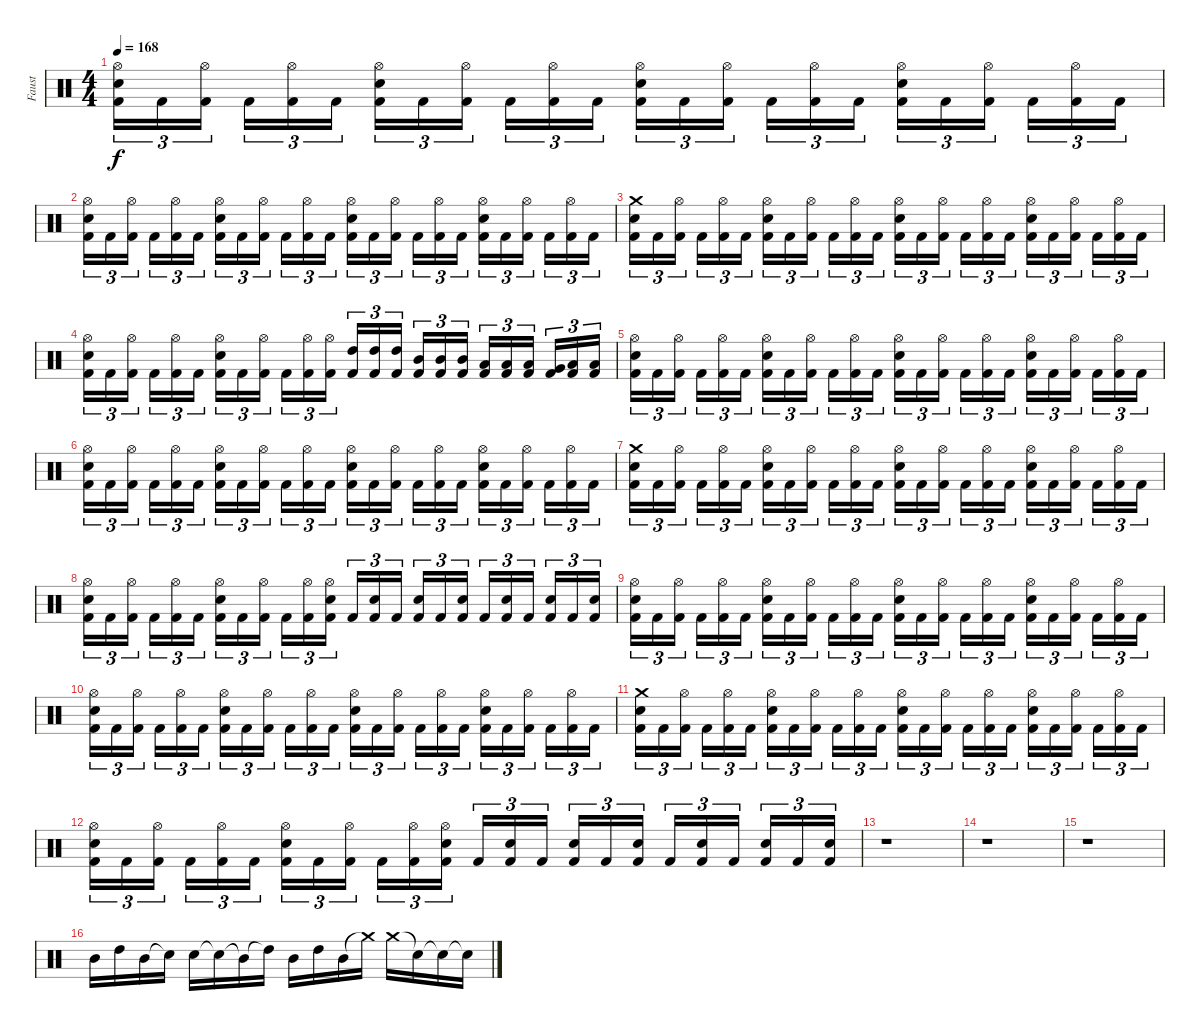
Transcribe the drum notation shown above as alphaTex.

\track ("Faust" "Faust") {instrument percussion}
\staff {score}
\articulation defaults
\ts (4 4)
\tempo 168
\clef neutral
\ks c
("Hi-Hat (open)" "Electric Snare (hit)" "Kick (hit) 2").16{tu (3 2) dy f} "Kick (hit) 2".16{tu (3 2)} ("Hi-Hat (open)" "Kick (hit) 2").16{tu (3 2)} "Kick (hit) 2".16{tu (3 2)} ("Hi-Hat (open)" "Kick (hit) 2").16{tu (3 2)} "Kick (hit) 2".16{tu (3 2)} ("Hi-Hat (open)" "Electric Snare (hit)" "Kick (hit) 2").16{tu (3 2)} "Kick (hit) 2".16{tu (3 2)} ("Hi-Hat (open)" "Kick (hit) 2").16{tu (3 2)} "Kick (hit) 2".16{tu (3 2)} ("Hi-Hat (open)" "Kick (hit) 2").16{tu (3 2)} "Kick (hit) 2".16{tu (3 2)} ("Hi-Hat (open)" "Electric Snare (hit)" "Kick (hit) 2").16{tu (3 2)} "Kick (hit) 2".16{tu (3 2)} ("Hi-Hat (open)" "Kick (hit) 2").16{tu (3 2)} "Kick (hit) 2".16{tu (3 2)} ("Hi-Hat (open)" "Kick (hit) 2").16{tu (3 2)} "Kick (hit) 2".16{tu (3 2)} ("Hi-Hat (open)" "Electric Snare (hit)" "Kick (hit) 2").16{tu (3 2)} "Kick (hit) 2".16{tu (3 2)} ("Hi-Hat (open)" "Kick (hit) 2").16{tu (3 2)} "Kick (hit) 2".16{tu (3 2)} ("Hi-Hat (open)" "Kick (hit) 2").16{tu (3 2)} "Kick (hit) 2".16{tu (3 2)} |
("Hi-Hat (open)" "Electric Snare (hit)" "Kick (hit) 2").16{tu (3 2)} "Kick (hit) 2".16{tu (3 2)} ("Hi-Hat (open)" "Kick (hit) 2").16{tu (3 2)} "Kick (hit) 2".16{tu (3 2)} ("Hi-Hat (open)" "Kick (hit) 2").16{tu (3 2)} "Kick (hit) 2".16{tu (3 2)} ("Hi-Hat (open)" "Electric Snare (hit)" "Kick (hit) 2").16{tu (3 2)} "Kick (hit) 2".16{tu (3 2)} ("Hi-Hat (open)" "Kick (hit) 2").16{tu (3 2)} "Kick (hit) 2".16{tu (3 2)} ("Hi-Hat (open)" "Kick (hit) 2").16{tu (3 2)} "Kick (hit) 2".16{tu (3 2)} ("Hi-Hat (open)" "Electric Snare (hit)" "Kick (hit) 2").16{tu (3 2)} "Kick (hit) 2".16{tu (3 2)} ("Hi-Hat (open)" "Kick (hit) 2").16{tu (3 2)} "Kick (hit) 2".16{tu (3 2)} ("Hi-Hat (open)" "Kick (hit) 2").16{tu (3 2)} "Kick (hit) 2".16{tu (3 2)} ("Hi-Hat (open)" "Electric Snare (hit)" "Kick (hit) 2").16{tu (3 2)} "Kick (hit) 2".16{tu (3 2)} ("Hi-Hat (open)" "Kick (hit) 2").16{tu (3 2)} "Kick (hit) 2".16{tu (3 2)} ("Hi-Hat (open)" "Kick (hit) 2").16{tu (3 2)} "Kick (hit) 2".16{tu (3 2)} |
("Crash medium (hit)" "Electric Snare (hit)" "Kick (hit) 2").16{tu (3 2)} "Kick (hit) 2".16{tu (3 2)} ("Hi-Hat (open)" "Kick (hit) 2").16{tu (3 2)} "Kick (hit) 2".16{tu (3 2)} ("Hi-Hat (open)" "Kick (hit) 2").16{tu (3 2)} "Kick (hit) 2".16{tu (3 2)} ("Hi-Hat (open)" "Electric Snare (hit)" "Kick (hit) 2").16{tu (3 2)} "Kick (hit) 2".16{tu (3 2)} ("Hi-Hat (open)" "Kick (hit) 2").16{tu (3 2)} "Kick (hit) 2".16{tu (3 2)} ("Hi-Hat (open)" "Kick (hit) 2").16{tu (3 2)} "Kick (hit) 2".16{tu (3 2)} ("Hi-Hat (open)" "Electric Snare (hit)" "Kick (hit) 2").16{tu (3 2)} "Kick (hit) 2".16{tu (3 2)} ("Hi-Hat (open)" "Kick (hit) 2").16{tu (3 2)} "Kick (hit) 2".16{tu (3 2)} ("Hi-Hat (open)" "Kick (hit) 2").16{tu (3 2)} "Kick (hit) 2".16{tu (3 2)} ("Hi-Hat (open)" "Electric Snare (hit)" "Kick (hit) 2").16{tu (3 2)} "Kick (hit) 2".16{tu (3 2)} ("Hi-Hat (open)" "Kick (hit) 2").16{tu (3 2)} "Kick (hit) 2".16{tu (3 2)} ("Hi-Hat (open)" "Kick (hit) 2").16{tu (3 2)} "Kick (hit) 2".16{tu (3 2)} |
("Hi-Hat (open)" "Electric Snare (hit)" "Kick (hit) 2").16{tu (3 2)} "Kick (hit) 2".16{tu (3 2)} ("Hi-Hat (open)" "Kick (hit) 2").16{tu (3 2)} "Kick (hit) 2".16{tu (3 2)} ("Hi-Hat (open)" "Kick (hit) 2").16{tu (3 2)} "Kick (hit) 2".16{tu (3 2)} ("Hi-Hat (open)" "Electric Snare (hit)" "Kick (hit) 2").16{tu (3 2)} "Kick (hit) 2".16{tu (3 2)} ("Hi-Hat (open)" "Kick (hit) 2").16{tu (3 2)} "Kick (hit) 2".16{tu (3 2)} ("Hi-Hat (open)" "Kick (hit) 2").16{tu (3 2)} ("Hi-Hat (open)" "Kick (hit) 2").16{tu (3 2)} ("High Tom (hit)" "Kick (hit) 2").16{tu (3 2)} ("High Tom (hit)" "Kick (hit) 2").16{tu (3 2)} ("High Tom (hit)" "Kick (hit) 2").16{tu (3 2)} ("Mid Tom (hit)" "Kick (hit) 2").16{tu (3 2)} ("Mid Tom (hit)" "Kick (hit) 2").16{tu (3 2)} ("Mid Tom (hit)" "Kick (hit) 2").16{tu (3 2)} ("Low Tom (hit)" "Kick (hit) 2").16{tu (3 2)} ("Low Tom (hit)" "Kick (hit) 2").16{tu (3 2)} ("Low Tom (hit)" "Kick (hit) 2").16{tu (3 2)} ("Very Low Tom (hit)" "Kick (hit) 2").16{tu (3 2)} ("Low Floor Tom (hit)" "Kick (hit) 2").16{tu (3 2)} ("Low Floor Tom (hit)" "Kick (hit) 2").16{tu (3 2)} |
("Hi-Hat (open)" "Electric Snare (hit)" "Kick (hit) 2").16{tu (3 2)} "Kick (hit) 2".16{tu (3 2)} ("Hi-Hat (open)" "Kick (hit) 2").16{tu (3 2)} "Kick (hit) 2".16{tu (3 2)} ("Hi-Hat (open)" "Kick (hit) 2").16{tu (3 2)} "Kick (hit) 2".16{tu (3 2)} ("Hi-Hat (open)" "Electric Snare (hit)" "Kick (hit) 2").16{tu (3 2)} "Kick (hit) 2".16{tu (3 2)} ("Hi-Hat (open)" "Kick (hit) 2").16{tu (3 2)} "Kick (hit) 2".16{tu (3 2)} ("Hi-Hat (open)" "Kick (hit) 2").16{tu (3 2)} "Kick (hit) 2".16{tu (3 2)} ("Hi-Hat (open)" "Electric Snare (hit)" "Kick (hit) 2").16{tu (3 2)} "Kick (hit) 2".16{tu (3 2)} ("Hi-Hat (open)" "Kick (hit) 2").16{tu (3 2)} "Kick (hit) 2".16{tu (3 2)} ("Hi-Hat (open)" "Kick (hit) 2").16{tu (3 2)} "Kick (hit) 2".16{tu (3 2)} ("Hi-Hat (open)" "Electric Snare (hit)" "Kick (hit) 2").16{tu (3 2)} "Kick (hit) 2".16{tu (3 2)} ("Hi-Hat (open)" "Kick (hit) 2").16{tu (3 2)} "Kick (hit) 2".16{tu (3 2)} ("Hi-Hat (open)" "Kick (hit) 2").16{tu (3 2)} "Kick (hit) 2".16{tu (3 2)} |
("Hi-Hat (open)" "Electric Snare (hit)" "Kick (hit) 2").16{tu (3 2)} "Kick (hit) 2".16{tu (3 2)} ("Hi-Hat (open)" "Kick (hit) 2").16{tu (3 2)} "Kick (hit) 2".16{tu (3 2)} ("Hi-Hat (open)" "Kick (hit) 2").16{tu (3 2)} "Kick (hit) 2".16{tu (3 2)} ("Hi-Hat (open)" "Electric Snare (hit)" "Kick (hit) 2").16{tu (3 2)} "Kick (hit) 2".16{tu (3 2)} ("Hi-Hat (open)" "Kick (hit) 2").16{tu (3 2)} "Kick (hit) 2".16{tu (3 2)} ("Hi-Hat (open)" "Kick (hit) 2").16{tu (3 2)} "Kick (hit) 2".16{tu (3 2)} ("Hi-Hat (open)" "Electric Snare (hit)" "Kick (hit) 2").16{tu (3 2)} "Kick (hit) 2".16{tu (3 2)} ("Hi-Hat (open)" "Kick (hit) 2").16{tu (3 2)} "Kick (hit) 2".16{tu (3 2)} ("Hi-Hat (open)" "Kick (hit) 2").16{tu (3 2)} "Kick (hit) 2".16{tu (3 2)} ("Hi-Hat (open)" "Electric Snare (hit)" "Kick (hit) 2").16{tu (3 2)} "Kick (hit) 2".16{tu (3 2)} ("Hi-Hat (open)" "Kick (hit) 2").16{tu (3 2)} "Kick (hit) 2".16{tu (3 2)} ("Hi-Hat (open)" "Kick (hit) 2").16{tu (3 2)} "Kick (hit) 2".16{tu (3 2)} |
("Crash medium (hit)" "Electric Snare (hit)" "Kick (hit) 2").16{tu (3 2)} "Kick (hit) 2".16{tu (3 2)} ("Hi-Hat (open)" "Kick (hit) 2").16{tu (3 2)} "Kick (hit) 2".16{tu (3 2)} ("Hi-Hat (open)" "Kick (hit) 2").16{tu (3 2)} "Kick (hit) 2".16{tu (3 2)} ("Hi-Hat (open)" "Electric Snare (hit)" "Kick (hit) 2").16{tu (3 2)} "Kick (hit) 2".16{tu (3 2)} ("Hi-Hat (open)" "Kick (hit) 2").16{tu (3 2)} "Kick (hit) 2".16{tu (3 2)} ("Hi-Hat (open)" "Kick (hit) 2").16{tu (3 2)} "Kick (hit) 2".16{tu (3 2)} ("Hi-Hat (open)" "Electric Snare (hit)" "Kick (hit) 2").16{tu (3 2)} "Kick (hit) 2".16{tu (3 2)} ("Hi-Hat (open)" "Kick (hit) 2").16{tu (3 2)} "Kick (hit) 2".16{tu (3 2)} ("Hi-Hat (open)" "Kick (hit) 2").16{tu (3 2)} "Kick (hit) 2".16{tu (3 2)} ("Hi-Hat (open)" "Electric Snare (hit)" "Kick (hit) 2").16{tu (3 2)} "Kick (hit) 2".16{tu (3 2)} ("Hi-Hat (open)" "Kick (hit) 2").16{tu (3 2)} "Kick (hit) 2".16{tu (3 2)} ("Hi-Hat (open)" "Kick (hit) 2").16{tu (3 2)} "Kick (hit) 2".16{tu (3 2)} |
("Hi-Hat (open)" "Electric Snare (hit)" "Kick (hit) 2").16{tu (3 2)} "Kick (hit) 2".16{tu (3 2)} ("Hi-Hat (open)" "Kick (hit) 2").16{tu (3 2)} "Kick (hit) 2".16{tu (3 2)} ("Hi-Hat (open)" "Kick (hit) 2").16{tu (3 2)} "Kick (hit) 2".16{tu (3 2)} ("Hi-Hat (open)" "Electric Snare (hit)" "Kick (hit) 2").16{tu (3 2)} "Kick (hit) 2".16{tu (3 2)} ("Hi-Hat (open)" "Kick (hit) 2").16{tu (3 2)} "Kick (hit) 2".16{tu (3 2)} ("Hi-Hat (open)" "Kick (hit) 2").16{tu (3 2)} ("Hi-Hat (open)" "Electric Snare (hit)" "Kick (hit) 2").16{tu (3 2)} "Kick (hit) 2".16{tu (3 2)} ("Electric Snare (hit)" "Kick (hit) 2").16{tu (3 2)} "Kick (hit) 2".16{tu (3 2)} ("Electric Snare (hit)" "Kick (hit) 2").16{tu (3 2)} "Kick (hit) 2".16{tu (3 2)} ("Electric Snare (hit)" "Kick (hit) 2").16{tu (3 2)} "Kick (hit) 2".16{tu (3 2)} ("Electric Snare (hit)" "Kick (hit) 2").16{tu (3 2)} "Kick (hit) 2".16{tu (3 2)} ("Electric Snare (hit)" "Kick (hit) 2").16{tu (3 2)} "Kick (hit) 2".16{tu (3 2)} ("Electric Snare (hit)" "Kick (hit) 2").16{tu (3 2)} |
("Hi-Hat (open)" "Electric Snare (hit)" "Kick (hit) 2").16{tu (3 2)} "Kick (hit) 2".16{tu (3 2)} ("Hi-Hat (open)" "Kick (hit) 2").16{tu (3 2)} "Kick (hit) 2".16{tu (3 2)} ("Hi-Hat (open)" "Kick (hit) 2").16{tu (3 2)} "Kick (hit) 2".16{tu (3 2)} ("Hi-Hat (open)" "Electric Snare (hit)" "Kick (hit) 2").16{tu (3 2)} "Kick (hit) 2".16{tu (3 2)} ("Hi-Hat (open)" "Kick (hit) 2").16{tu (3 2)} "Kick (hit) 2".16{tu (3 2)} ("Hi-Hat (open)" "Kick (hit) 2").16{tu (3 2)} "Kick (hit) 2".16{tu (3 2)} ("Hi-Hat (open)" "Electric Snare (hit)" "Kick (hit) 2").16{tu (3 2)} "Kick (hit) 2".16{tu (3 2)} ("Hi-Hat (open)" "Kick (hit) 2").16{tu (3 2)} "Kick (hit) 2".16{tu (3 2)} ("Hi-Hat (open)" "Kick (hit) 2").16{tu (3 2)} "Kick (hit) 2".16{tu (3 2)} ("Hi-Hat (open)" "Electric Snare (hit)" "Kick (hit) 2").16{tu (3 2)} "Kick (hit) 2".16{tu (3 2)} ("Hi-Hat (open)" "Kick (hit) 2").16{tu (3 2)} "Kick (hit) 2".16{tu (3 2)} ("Hi-Hat (open)" "Kick (hit) 2").16{tu (3 2)} "Kick (hit) 2".16{tu (3 2)} |
("Hi-Hat (open)" "Electric Snare (hit)" "Kick (hit) 2").16{tu (3 2)} "Kick (hit) 2".16{tu (3 2)} ("Hi-Hat (open)" "Kick (hit) 2").16{tu (3 2)} "Kick (hit) 2".16{tu (3 2)} ("Hi-Hat (open)" "Kick (hit) 2").16{tu (3 2)} "Kick (hit) 2".16{tu (3 2)} ("Hi-Hat (open)" "Electric Snare (hit)" "Kick (hit) 2").16{tu (3 2)} "Kick (hit) 2".16{tu (3 2)} ("Hi-Hat (open)" "Kick (hit) 2").16{tu (3 2)} "Kick (hit) 2".16{tu (3 2)} ("Hi-Hat (open)" "Kick (hit) 2").16{tu (3 2)} "Kick (hit) 2".16{tu (3 2)} ("Hi-Hat (open)" "Electric Snare (hit)" "Kick (hit) 2").16{tu (3 2)} "Kick (hit) 2".16{tu (3 2)} ("Hi-Hat (open)" "Kick (hit) 2").16{tu (3 2)} "Kick (hit) 2".16{tu (3 2)} ("Hi-Hat (open)" "Kick (hit) 2").16{tu (3 2)} "Kick (hit) 2".16{tu (3 2)} ("Hi-Hat (open)" "Electric Snare (hit)" "Kick (hit) 2").16{tu (3 2)} "Kick (hit) 2".16{tu (3 2)} ("Hi-Hat (open)" "Kick (hit) 2").16{tu (3 2)} "Kick (hit) 2".16{tu (3 2)} ("Hi-Hat (open)" "Kick (hit) 2").16{tu (3 2)} "Kick (hit) 2".16{tu (3 2)} |
("Crash medium (hit)" "Electric Snare (hit)" "Kick (hit) 2").16{tu (3 2)} "Kick (hit) 2".16{tu (3 2)} ("Hi-Hat (open)" "Kick (hit) 2").16{tu (3 2)} "Kick (hit) 2".16{tu (3 2)} ("Hi-Hat (open)" "Kick (hit) 2").16{tu (3 2)} "Kick (hit) 2".16{tu (3 2)} ("Hi-Hat (open)" "Electric Snare (hit)" "Kick (hit) 2").16{tu (3 2)} "Kick (hit) 2".16{tu (3 2)} ("Hi-Hat (open)" "Kick (hit) 2").16{tu (3 2)} "Kick (hit) 2".16{tu (3 2)} ("Hi-Hat (open)" "Kick (hit) 2").16{tu (3 2)} "Kick (hit) 2".16{tu (3 2)} ("Hi-Hat (open)" "Electric Snare (hit)" "Kick (hit) 2").16{tu (3 2)} "Kick (hit) 2".16{tu (3 2)} ("Hi-Hat (open)" "Kick (hit) 2").16{tu (3 2)} "Kick (hit) 2".16{tu (3 2)} ("Hi-Hat (open)" "Kick (hit) 2").16{tu (3 2)} "Kick (hit) 2".16{tu (3 2)} ("Hi-Hat (open)" "Electric Snare (hit)" "Kick (hit) 2").16{tu (3 2)} "Kick (hit) 2".16{tu (3 2)} ("Hi-Hat (open)" "Kick (hit) 2").16{tu (3 2)} "Kick (hit) 2".16{tu (3 2)} ("Hi-Hat (open)" "Kick (hit) 2").16{tu (3 2)} "Kick (hit) 2".16{tu (3 2)} |
("Hi-Hat (open)" "Electric Snare (hit)" "Kick (hit) 2").16{tu (3 2)} "Kick (hit) 2".16{tu (3 2)} ("Hi-Hat (open)" "Kick (hit) 2").16{tu (3 2)} "Kick (hit) 2".16{tu (3 2)} ("Hi-Hat (open)" "Kick (hit) 2").16{tu (3 2)} "Kick (hit) 2".16{tu (3 2)} ("Hi-Hat (open)" "Electric Snare (hit)" "Kick (hit) 2").16{tu (3 2)} "Kick (hit) 2".16{tu (3 2)} ("Hi-Hat (open)" "Kick (hit) 2").16{tu (3 2)} "Kick (hit) 2".16{tu (3 2)} ("Hi-Hat (open)" "Kick (hit) 2").16{tu (3 2)} ("Hi-Hat (open)" "Electric Snare (hit)" "Kick (hit) 2").16{tu (3 2)} "Kick (hit) 2".16{tu (3 2)} ("Electric Snare (hit)" "Kick (hit) 2").16{tu (3 2)} "Kick (hit) 2".16{tu (3 2)} ("Electric Snare (hit)" "Kick (hit) 2").16{tu (3 2)} "Kick (hit) 2".16{tu (3 2)} ("Electric Snare (hit)" "Kick (hit) 2").16{tu (3 2)} "Kick (hit) 2".16{tu (3 2)} ("Electric Snare (hit)" "Kick (hit) 2").16{tu (3 2)} "Kick (hit) 2".16{tu (3 2)} ("Electric Snare (hit)" "Kick (hit) 2").16{tu (3 2)} "Kick (hit) 2".16{tu (3 2)} ("Electric Snare (hit)" "Kick (hit) 2").16{tu (3 2)} |
r.1 |
r.1 |
r.1 |
"Mid Tom (hit)".16 "High Tom (hit)".16 "Mid Tom (hit)".16 "Electric Snare (hit)"{t}.16 "Electric Snare (hit)".16 "Snare (hit)"{t}.16 "Mid Tom (hit)"{t}.16 "High Tom (hit)"{t}.16 "Mid Tom (hit)".16 "High Tom (hit)".16 "Mid Tom (hit)".16 "Crash medium (hit)"{t}.16 "Crash medium (hit)".16 "Snare (hit)"{t}.16 "Snare (hit)"{t}.16 "Snare (hit)"{t}.16
